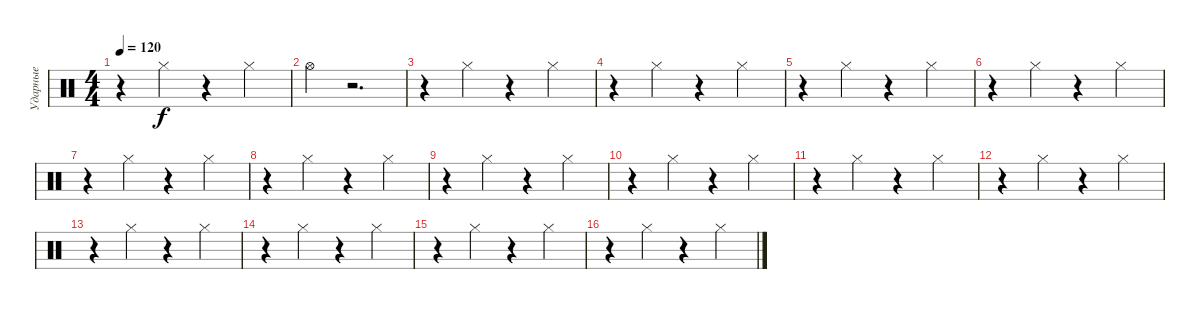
\track ("Ударные" "Ударные") {instrument percussion}
\staff {score}
\articulation defaults
\ts (4 4)
\tempo 120
\clef neutral
\ks c
r.4{dy f} "Hi-Hat (closed)".4 r.4 "Hi-Hat (closed)".4 |
"Hi-Hat (open)".4 r.2{d} |
r.4 "Hi-Hat (closed)".4 r.4 "Hi-Hat (closed)".4 |
r.4 "Hi-Hat (closed)".4 r.4 "Hi-Hat (closed)".4 |
r.4 "Hi-Hat (closed)".4 r.4 "Hi-Hat (closed)".4 |
r.4 "Hi-Hat (closed)".4 r.4 "Hi-Hat (closed)".4 |
r.4 "Hi-Hat (closed)".4 r.4 "Hi-Hat (closed)".4 |
r.4 "Hi-Hat (closed)".4 r.4 "Hi-Hat (closed)".4 |
r.4 "Hi-Hat (closed)".4 r.4 "Hi-Hat (closed)".4 |
r.4 "Hi-Hat (closed)".4 r.4 "Hi-Hat (closed)".4 |
r.4 "Hi-Hat (closed)".4 r.4 "Hi-Hat (closed)".4 |
r.4 "Hi-Hat (closed)".4 r.4 "Hi-Hat (closed)".4 |
r.4 "Hi-Hat (closed)".4 r.4 "Hi-Hat (closed)".4 |
r.4 "Hi-Hat (closed)".4 r.4 "Hi-Hat (closed)".4 |
r.4 "Hi-Hat (closed)".4 r.4 "Hi-Hat (closed)".4 |
r.4 "Hi-Hat (closed)".4 r.4 "Hi-Hat (closed)".4
